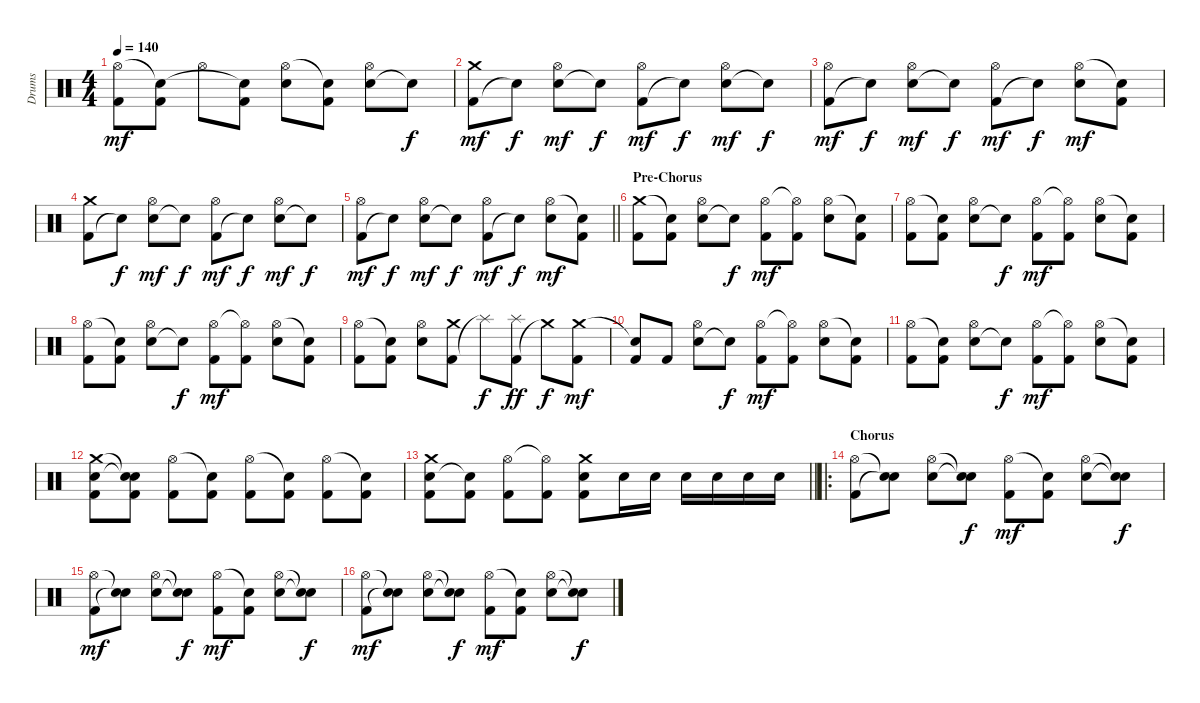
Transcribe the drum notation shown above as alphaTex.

\track ("Drums" "Drums") {instrument percussion}
\staff {score}
\articulation defaults
\ts (4 4)
\tempo 140
\clef neutral
\ks c
("Kick (hit) 2" "Hi-Hat (open)").8{dy mf} ("Kick (hit) 2" "Snare (hit)"{t}).8 "Hi-Hat (open)".8 ("Kick (hit) 2" "Snare (hit)"{t}).8 ("Snare (hit) 2" "Hi-Hat (open)").8 ("Kick (hit) 2" "Snare (hit)"{t}).8 ("Snare (hit) 2" "Hi-Hat (open)").8 "Snare (hit)"{t}.8{dy f} |
("Kick (hit) 2" "Crash medium (hit)").8{dy mf} "Snare (hit)"{t}.8{dy f} ("Snare (hit) 2" "Hi-Hat (open)").8{dy mf} "Snare (hit)"{t}.8{dy f} ("Kick (hit) 2" "Hi-Hat (open)").8{dy mf} "Snare (hit)"{t}.8{dy f} ("Snare (hit) 2" "Hi-Hat (open)").8{dy mf} "Snare (hit)"{t}.8{dy f} |
("Kick (hit) 2" "Hi-Hat (open)").8{dy mf} "Snare (hit)"{t}.8{dy f} ("Snare (hit) 2" "Hi-Hat (open)").8{dy mf} "Snare (hit)"{t}.8{dy f} ("Kick (hit) 2" "Hi-Hat (open)").8{dy mf} "Snare (hit)"{t}.8{dy f} ("Snare (hit) 2" "Hi-Hat (open)").8{dy mf} ("Kick (hit) 2" "Snare (hit)"{t}).8 |
("Kick (hit) 2" "Crash medium (hit)").8 "Snare (hit)"{t}.8{dy f} ("Snare (hit) 2" "Hi-Hat (open)").8{dy mf} "Snare (hit)"{t}.8{dy f} ("Kick (hit) 2" "Hi-Hat (open)").8{dy mf} "Snare (hit)"{t}.8{dy f} ("Snare (hit) 2" "Hi-Hat (open)").8{dy mf} "Snare (hit)"{t}.8{dy f} |
\barLineRight lightlight
("Kick (hit) 2" "Hi-Hat (open)").8{dy mf} "Snare (hit)"{t}.8{dy f} ("Snare (hit) 2" "Hi-Hat (open)").8{dy mf} "Snare (hit)"{t}.8{dy f} ("Kick (hit) 2" "Hi-Hat (open)").8{dy mf} "Snare (hit)"{t}.8{dy f} ("Snare (hit) 2" "Hi-Hat (open)").8{dy mf} ("Kick (hit) 2" "Snare (hit)"{t}).8 |
\section ("" "Pre-Chorus")
("Kick (hit) 2" "Crash medium (hit)").8 ("Kick (hit) 2" "Snare (hit)"{t}).8 ("Snare (hit) 2" "Hi-Hat (open)").8 "Snare (hit)"{t}.8{dy f} ("Kick (hit) 2" "Hi-Hat (open)").8{dy mf} ("Kick (hit) 2" "Hi-Hat (open)"{t}).8 ("Snare (hit) 2" "Hi-Hat (open)").8 ("Kick (hit) 2" "Snare (hit)"{t}).8 |
("Kick (hit) 2" "Hi-Hat (open)").8 ("Kick (hit) 2" "Snare (hit)"{t}).8 ("Snare (hit) 2" "Hi-Hat (open)").8 "Snare (hit)"{t}.8{dy f} ("Kick (hit) 2" "Hi-Hat (open)").8{dy mf} ("Kick (hit) 2" "Hi-Hat (open)"{t}).8 ("Snare (hit) 2" "Hi-Hat (open)").8 ("Kick (hit) 2" "Snare (hit)"{t}).8 |
("Kick (hit) 2" "Hi-Hat (open)").8 ("Kick (hit) 2" "Snare (hit)"{t}).8 ("Snare (hit) 2" "Hi-Hat (open)").8 "Snare (hit)"{t}.8{dy f} ("Kick (hit) 2" "Hi-Hat (open)").8{dy mf} ("Kick (hit) 2" "Hi-Hat (open)"{t}).8 ("Snare (hit) 2" "Hi-Hat (open)").8 ("Kick (hit) 2" "Snare (hit)"{t}).8 |
("Kick (hit) 2" "Hi-Hat (open)").8 ("Kick (hit) 2" "Snare (hit)"{t}).8 ("Snare (hit) 2" "Hi-Hat (open)").8 ("Kick (hit) 2" "Crash medium (hit)").8 "Splash (hit)"{t}.8{dy f} ("Kick (hit) 2" "Splash (hit)").8{dy ff} "Crash medium (hit)"{t}.8{dy f} ("Kick (hit) 2" "Crash medium (hit)").8{dy mf} |
("Kick (hit) 2" "Snare (hit)"{t}).8 "Kick (hit) 2".8 ("Snare (hit) 2" "Hi-Hat (open)").8 "Snare (hit)"{t}.8{dy f} ("Kick (hit) 2" "Hi-Hat (open)").8{dy mf} ("Kick (hit) 2" "Hi-Hat (open)"{t}).8 ("Snare (hit) 2" "Hi-Hat (open)").8 ("Kick (hit) 2" "Snare (hit)"{t}).8 |
("Kick (hit) 2" "Hi-Hat (open)").8 ("Kick (hit) 2" "Snare (hit)"{t}).8 ("Snare (hit) 2" "Hi-Hat (open)").8 "Snare (hit)"{t}.8{dy f} ("Kick (hit) 2" "Hi-Hat (open)").8{dy mf} ("Kick (hit) 2" "Hi-Hat (open)"{t}).8 ("Snare (hit) 2" "Hi-Hat (open)").8 ("Kick (hit) 2" "Snare (hit)"{t}).8 |
("Kick (hit) 2" "Snare (hit) 2" "Crash medium (hit)").8 ("Kick (hit) 2" "Snare (hit)"{t} "Snare (hit)"{t}).8 ("Kick (hit) 2" "Hi-Hat (open)").8 ("Kick (hit) 2" "Snare (hit)"{t}).8 ("Kick (hit) 2" "Hi-Hat (open)").8 ("Kick (hit) 2" "Snare (hit)"{t}).8 ("Kick (hit) 2" "Hi-Hat (open)").8 ("Kick (hit) 2" "Snare (hit)"{t}).8 |
\barLineRight lightlight
("Kick (hit) 2" "Snare (hit) 2" "Crash medium (hit)").8 ("Kick (hit) 2" "Snare (hit)"{t}).8 ("Kick (hit) 2" "Hi-Hat (open)").8 ("Kick (hit) 2" "Hi-Hat (open)"{t}).8 ("Kick (hit) 2" "Snare (hit) 2" "Crash medium (hit)").8 "Snare (hit) 2".16 "Snare (hit) 2".16 "Snare (hit) 2".16 "Snare (hit) 2".16 "Snare (hit) 2".16 "Snare (hit) 2".16 |
\ro
\section ("" "Chorus")
("Kick (hit) 2" "Hi-Hat (open)").8 ("Snare (hit)"{t} "Snare (hit)"{t}).8 ("Snare (hit) 2" "Hi-Hat (open)").8 ("Snare (hit)"{t} "Snare (hit)"{t}).8{dy f} ("Kick (hit) 2" "Hi-Hat (open)").8{dy mf} ("Kick (hit) 2" "Snare (hit)"{t}).8 ("Snare (hit) 2" "Hi-Hat (open)").8 ("Snare (hit)"{t} "Snare (hit)"{t}).8{dy f} |
("Kick (hit) 2" "Hi-Hat (open)").8{dy mf} ("Snare (hit)"{t} "Snare (hit)"{t}).8 ("Snare (hit) 2" "Hi-Hat (open)").8 ("Snare (hit)"{t} "Snare (hit)"{t}).8{dy f} ("Kick (hit) 2" "Hi-Hat (open)").8{dy mf} ("Kick (hit) 2" "Snare (hit)"{t}).8 ("Snare (hit) 2" "Hi-Hat (open)").8 ("Snare (hit)"{t} "Snare (hit)"{t}).8{dy f} |
("Kick (hit) 2" "Hi-Hat (open)").8{dy mf} ("Snare (hit)"{t} "Snare (hit)"{t}).8 ("Snare (hit) 2" "Hi-Hat (open)").8 ("Snare (hit)"{t} "Snare (hit)"{t}).8{dy f} ("Kick (hit) 2" "Hi-Hat (open)").8{dy mf} ("Kick (hit) 2" "Snare (hit)"{t}).8 ("Snare (hit) 2" "Hi-Hat (open)").8 ("Snare (hit)"{t} "Snare (hit)"{t}).8{dy f}
